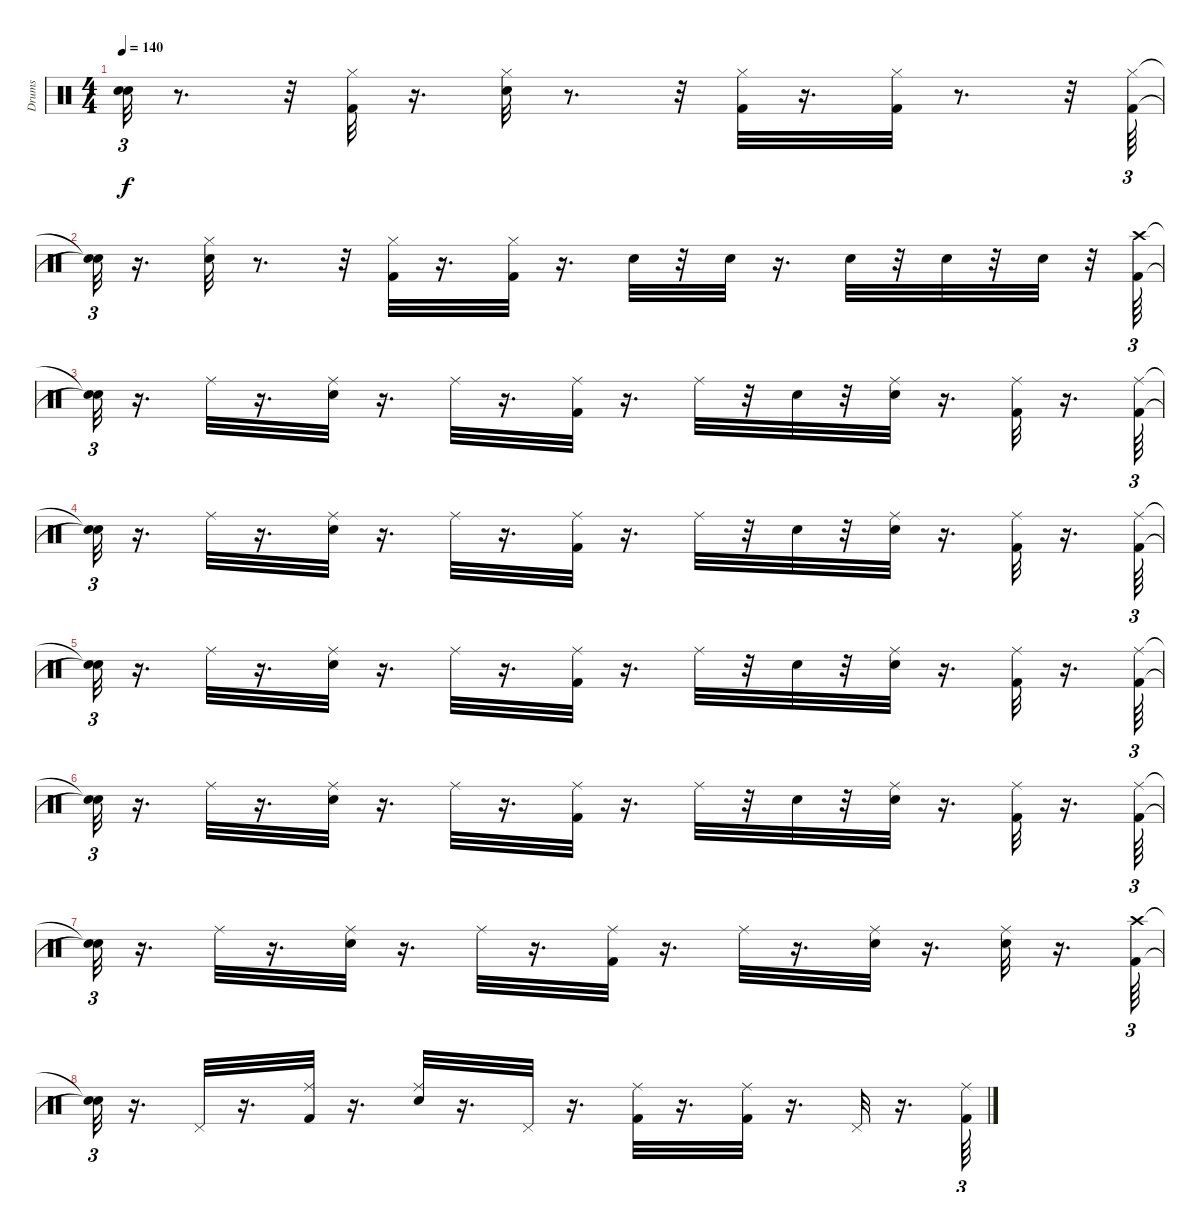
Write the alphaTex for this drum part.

\track ("Drums" "Drums") {instrument percussion}
\staff {score}
\articulation defaults
\ts (4 4)
\tempo 140
\clef neutral
\ks c
("Snare (hit)"{t} "Snare (hit)"{t}).32{tu (3 2) dy f} r.8{d} r.32 ("Hi-Hat (closed)" "Kick (hit) 2").32 r.16{d} ("Hi-Hat (closed)" "Snare (hit) 2").32 r.8{d} r.32 ("Hi-Hat (closed)" "Kick (hit) 2").32 r.16{d} ("Hi-Hat (closed)" "Kick (hit) 2").32 r.8{d} r.32 ("Hi-Hat (closed)" "Kick (hit) 2").64{tu (3 2)} |
("Snare (hit)"{t} "Snare (hit)"{t}).32{tu (3 2)} r.16{d} ("Hi-Hat (closed)" "Snare (hit) 2").32 r.8{d} r.32 ("Hi-Hat (closed)" "Kick (hit) 2").32 r.16{d} ("Hi-Hat (closed)" "Kick (hit) 2").32 r.16{d} "Snare (hit) 2".32 r.32 "Snare (hit) 2".32 r.16{d} "Snare (hit) 2".32 r.32 "Snare (hit) 2".32 r.32 "Snare (hit) 2".32 r.32 ("Crash high (hit)" "Kick (hit) 2").64{tu (3 2)} |
("Snare (hit)"{t} "Snare (hit)"{t}).32{tu (3 2)} r.16{d} "Ride (middle)".32 r.16{d} ("Snare (hit) 2" "Ride (middle)").32 r.16{d} "Ride (middle)".32 r.16{d} ("Kick (hit) 2" "Ride (middle)").32 r.16{d} "Ride (middle)".32 r.32 "Snare (hit) 2".32 r.32 ("Snare (hit) 2" "Ride (middle)").32 r.16{d} ("Kick (hit) 2" "Ride (middle)").32 r.16{d} ("Ride (middle)" "Kick (hit) 2").64{tu (3 2)} |
("Snare (hit)"{t} "Snare (hit)"{t}).32{tu (3 2)} r.16{d} "Ride (middle)".32 r.16{d} ("Snare (hit) 2" "Ride (middle)").32 r.16{d} "Ride (middle)".32 r.16{d} ("Kick (hit) 2" "Ride (middle)").32 r.16{d} "Ride (middle)".32 r.32 "Snare (hit) 2".32 r.32 ("Snare (hit) 2" "Ride (middle)").32 r.16{d} ("Kick (hit) 2" "Ride (middle)").32 r.16{d} ("Ride (middle)" "Kick (hit) 2").64{tu (3 2)} |
("Snare (hit)"{t} "Snare (hit)"{t}).32{tu (3 2)} r.16{d} "Ride (middle)".32 r.16{d} ("Snare (hit) 2" "Ride (middle)").32 r.16{d} "Ride (middle)".32 r.16{d} ("Ride (middle)" "Kick (hit) 2").32 r.16{d} "Ride (middle)".32 r.32 "Snare (hit) 2".32 r.32 ("Ride (middle)" "Snare (hit) 2").32 r.16{d} ("Kick (hit) 2" "Ride (middle)").32 r.16{d} ("Ride (middle)" "Kick (hit) 2").64{tu (3 2)} |
("Snare (hit)"{t} "Snare (hit)"{t}).32{tu (3 2)} r.16{d} "Ride (middle)".32 r.16{d} ("Snare (hit) 2" "Ride (middle)").32 r.16{d} "Ride (middle)".32 r.16{d} ("Ride (middle)" "Kick (hit) 2").32 r.16{d} "Ride (middle)".32 r.32 "Snare (hit) 2".32 r.32 ("Ride (middle)" "Snare (hit) 2").32 r.16{d} ("Kick (hit) 2" "Ride (middle)").32 r.16{d} ("Ride (middle)" "Kick (hit) 2").64{tu (3 2)} |
("Snare (hit)"{t} "Snare (hit)"{t}).32{tu (3 2)} r.16{d} "Ride (middle)".32 r.16{d} ("Snare (hit) 2" "Ride (middle)").32 r.16{d} "Ride (middle)".32 r.16{d} ("Ride (middle)" "Kick (hit) 2").32 r.16{d} "Ride (middle)".32 r.16{d} ("Ride (middle)" "Snare (hit) 2").32 r.16{d} ("Snare (hit) 2" "Ride (middle)").32 r.16{d} ("Crash high (hit)" "Kick (hit) 2").64{tu (3 2)} |
("Snare (hit)"{t} "Snare (hit)"{t}).32{tu (3 2)} r.16{d} "Pedal Hi-Hat (hit)".32 r.16{d} ("Kick (hit) 2" "Ride (middle)").32 r.16{d} ("Ride (middle)" "Snare (hit) 2").32 r.16{d} "Pedal Hi-Hat (hit)".32 r.16{d} ("Ride (middle)" "Kick (hit) 2").32 r.16{d} ("Ride (middle)" "Kick (hit) 2").32 r.16{d} "Pedal Hi-Hat (hit)".32 r.16{d} ("Ride (middle)" "Kick (hit) 2").64{tu (3 2)}
